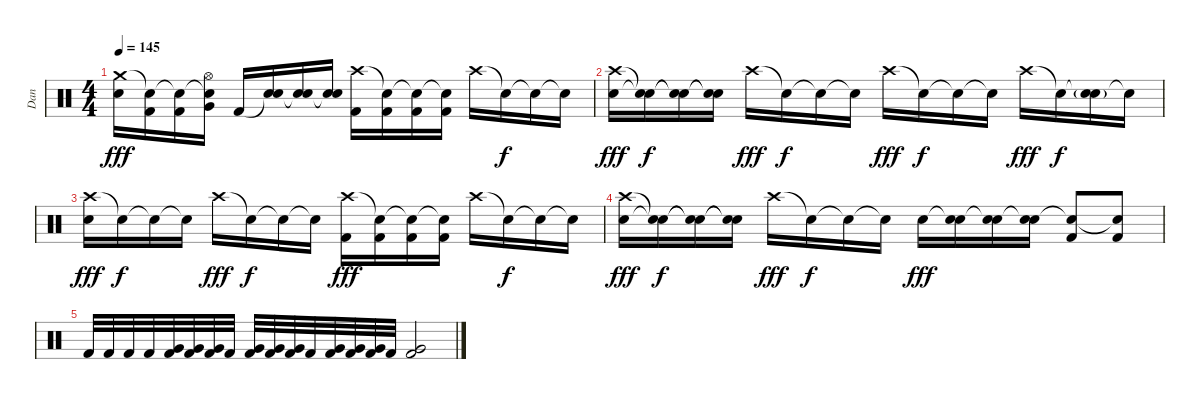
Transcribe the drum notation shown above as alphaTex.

\track ("Dan" "Dan") {instrument percussion}
\staff {score}
\articulation defaults
\ts (4 4)
\tempo 145
\clef neutral
\ks c
("Crash medium (hit)" "Electric Snare (hit)").16{dy fff} ("Snare (hit)"{t} "Kick (hit) 2").16 ("Snare (hit)"{t} "Kick (hit) 2").16 ("Snare (hit)"{t} "Hi-Hat (open)" "Very Low Tom (hit)").16 "Kick (hit) 2".16 ("Snare (hit)"{t} "Electric Snare (hit)").16 ("Snare (hit)"{t} "Electric Snare (hit)").16 ("Snare (hit)"{t} "Electric Snare (hit)").16 ("Crash high (hit)" "Kick (hit) 2").16 ("Snare (hit)"{t} "Kick (hit) 2").16 ("Snare (hit)"{t} "Kick (hit) 2").16 ("Snare (hit)"{t} "Kick (hit) 2").16 "Crash high (hit)".16 "Snare (hit)"{t}.16{dy f} "Snare (hit)"{t}.16 "Snare (hit)"{t}.16 |
("Crash high (hit)" "Electric Snare (hit)").16{dy fff} ("Snare (hit)"{t} "Snare (hit)"{t}).16{dy f} ("Snare (hit)"{t} "Snare (hit)"{t}).16 ("Snare (hit)"{t} "Snare (hit)"{t}).16 "Crash high (hit)".16{dy fff} "Snare (hit)"{t}.16{dy f} "Snare (hit)"{t}.16 "Snare (hit)"{t}.16 "Crash high (hit)".16{dy fff} "Snare (hit)"{t}.16{dy f} "Snare (hit)"{t}.16 "Snare (hit)"{t}.16 "Crash high (hit)".16{dy fff} "Snare (hit)"{t}.16{dy f} ("Snare (hit)"{t} "Electric Snare (hit)"{g}).16 "Snare (hit)"{t}.16 |
("Crash high (hit)" "Electric Snare (hit)").16{dy fff} "Snare (hit)"{t}.16{dy f} "Snare (hit)"{t}.16 "Snare (hit)"{t}.16 "Crash high (hit)".16{dy fff} "Snare (hit)"{t}.16{dy f} "Snare (hit)"{t}.16 "Snare (hit)"{t}.16 ("Crash high (hit)" "Kick (hit) 2").16{dy fff} ("Snare (hit)"{t} "Kick (hit) 2").16 ("Snare (hit)"{t} "Kick (hit) 2").16 ("Snare (hit)"{t} "Kick (hit) 2").16 "Crash high (hit)".16 "Snare (hit)"{t}.16{dy f} "Snare (hit)"{t}.16 "Snare (hit)"{t}.16 |
("Crash high (hit)" "Electric Snare (hit)").16{dy fff} ("Snare (hit)"{t} "Snare (hit)"{t}).16{dy f} ("Snare (hit)"{t} "Snare (hit)"{t}).16 ("Snare (hit)"{t} "Snare (hit)"{t}).16 "Crash high (hit)".16{dy fff} "Snare (hit)"{t}.16{dy f} "Snare (hit)"{t}.16 "Snare (hit)"{t}.16 "Electric Snare (hit)".16{dy fff} ("Snare (hit)"{t} "Electric Snare (hit)").16 ("Snare (hit)"{t} "Electric Snare (hit)").16 ("Snare (hit)"{t} "Electric Snare (hit)").16 ("Snare (hit)"{t} "Kick (hit) 2").8 ("Snare (hit)"{t} "Kick (hit) 2").8 |
"Kick (hit) 2".32 "Kick (hit) 2".32 "Kick (hit) 2".32 "Kick (hit) 2".32 ("Very Low Tom (hit)" "Kick (hit) 2").32 ("Very Low Tom (hit)" "Kick (hit) 2").32 ("Very Low Tom (hit)" "Kick (hit) 2").32 "Kick (hit) 2".32 ("Very Low Tom (hit)" "Kick (hit) 2").32 ("Very Low Tom (hit)" "Kick (hit) 2").32 ("Very Low Tom (hit)" "Kick (hit) 2").32 "Kick (hit) 2".32 ("Very Low Tom (hit)" "Kick (hit) 2").32 ("Very Low Tom (hit)" "Kick (hit) 2").32 ("Very Low Tom (hit)" "Kick (hit) 2").32 "Kick (hit) 2".32 ("Very Low Tom (hit)" "Kick (hit) 2").2
